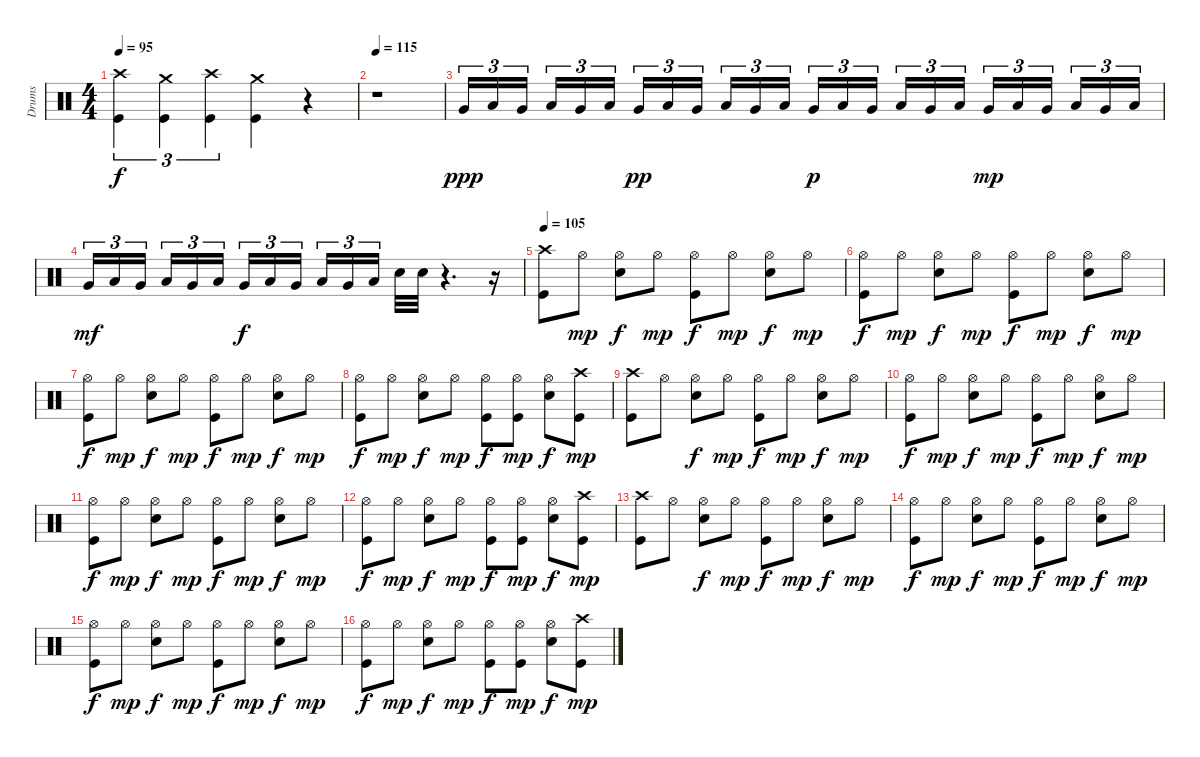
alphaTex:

\track ("Drums" "Drums") {instrument percussion}
\staff {score}
\articulation defaults
\ts (4 4)
\tempo 95
\clef neutral
\ks c
("Crash high (hit)" "Kick (hit)").4{tu (3 2) dy f} ("Crash medium (hit)" "Kick (hit)").4{tu (3 2)} ("Crash high (hit)" "Kick (hit)").4{tu (3 2)} ("Crash medium (hit)" "Kick (hit)").4 r.4 |
\tempo 115
r.1 |
"Very Low Tom (hit)".16{tu (3 2) dy ppp} "Low Floor Tom (hit)".16{tu (3 2)} "Very Low Tom (hit)".16{tu (3 2)} "Low Floor Tom (hit)".16{tu (3 2)} "Very Low Tom (hit)".16{tu (3 2)} "Low Floor Tom (hit)".16{tu (3 2)} "Very Low Tom (hit)".16{tu (3 2) dy pp} "Low Floor Tom (hit)".16{tu (3 2)} "Very Low Tom (hit)".16{tu (3 2)} "Low Floor Tom (hit)".16{tu (3 2)} "Very Low Tom (hit)".16{tu (3 2)} "Low Floor Tom (hit)".16{tu (3 2)} "Very Low Tom (hit)".16{tu (3 2) dy p} "Low Floor Tom (hit)".16{tu (3 2)} "Very Low Tom (hit)".16{tu (3 2)} "Low Floor Tom (hit)".16{tu (3 2)} "Very Low Tom (hit)".16{tu (3 2)} "Low Floor Tom (hit)".16{tu (3 2)} "Very Low Tom (hit)".16{tu (3 2) dy mp} "Low Floor Tom (hit)".16{tu (3 2)} "Very Low Tom (hit)".16{tu (3 2)} "Low Floor Tom (hit)".16{tu (3 2)} "Very Low Tom (hit)".16{tu (3 2)} "Low Floor Tom (hit)".16{tu (3 2)} |
"Very Low Tom (hit)".16{tu (3 2) dy mf} "Low Floor Tom (hit)".16{tu (3 2)} "Very Low Tom (hit)".16{tu (3 2)} "Low Floor Tom (hit)".16{tu (3 2)} "Very Low Tom (hit)".16{tu (3 2)} "Low Floor Tom (hit)".16{tu (3 2)} "Very Low Tom (hit)".16{tu (3 2) dy f} "Low Floor Tom (hit)".16{tu (3 2)} "Very Low Tom (hit)".16{tu (3 2)} "Low Floor Tom (hit)".16{tu (3 2)} "Very Low Tom (hit)".16{tu (3 2)} "Low Floor Tom (hit)".16{tu (3 2)} "Snare (hit) 2".32 "Snare (hit) 2".32 r.4{d} r.16 |
\tempo 105
("Crash high (hit)" "Kick (hit)").8 "Hi-Hat (open)".8{dy mp} ("Hi-Hat (open)" "Snare (hit) 2").8{dy f} "Hi-Hat (open)".8{dy mp} ("Hi-Hat (open)" "Kick (hit)").8{dy f} "Hi-Hat (open)".8{dy mp} ("Hi-Hat (open)" "Snare (hit) 2").8{dy f} "Hi-Hat (open)".8{dy mp} |
("Hi-Hat (open)" "Kick (hit)").8{dy f} "Hi-Hat (open)".8{dy mp} ("Hi-Hat (open)" "Snare (hit) 2").8{dy f} "Hi-Hat (open)".8{dy mp} ("Hi-Hat (open)" "Kick (hit)").8{dy f} "Hi-Hat (open)".8{dy mp} ("Hi-Hat (open)" "Snare (hit) 2").8{dy f} "Hi-Hat (open)".8{dy mp} |
("Hi-Hat (open)" "Kick (hit)").8{dy f} "Hi-Hat (open)".8{dy mp} ("Hi-Hat (open)" "Snare (hit) 2").8{dy f} "Hi-Hat (open)".8{dy mp} ("Hi-Hat (open)" "Kick (hit)").8{dy f} "Hi-Hat (open)".8{dy mp} ("Hi-Hat (open)" "Snare (hit) 2").8{dy f} "Hi-Hat (open)".8{dy mp} |
("Hi-Hat (open)" "Kick (hit)").8{dy f} "Hi-Hat (open)".8{dy mp} ("Hi-Hat (open)" "Snare (hit) 2").8{dy f} "Hi-Hat (open)".8{dy mp} ("Hi-Hat (open)" "Kick (hit)").8{dy f} ("Hi-Hat (open)" "Kick (hit)").8{dy mp} ("Hi-Hat (open)" "Snare (hit) 2").8{dy f} ("Crash high (hit)" "Kick (hit)").8{dy mp} |
("Crash high (hit)" "Kick (hit)").8 "Hi-Hat (open)".8 ("Hi-Hat (open)" "Snare (hit) 2").8{dy f} "Hi-Hat (open)".8{dy mp} ("Hi-Hat (open)" "Kick (hit)").8{dy f} "Hi-Hat (open)".8{dy mp} ("Hi-Hat (open)" "Snare (hit) 2").8{dy f} "Hi-Hat (open)".8{dy mp} |
("Hi-Hat (open)" "Kick (hit)").8{dy f} "Hi-Hat (open)".8{dy mp} ("Hi-Hat (open)" "Snare (hit) 2").8{dy f} "Hi-Hat (open)".8{dy mp} ("Hi-Hat (open)" "Kick (hit)").8{dy f} "Hi-Hat (open)".8{dy mp} ("Hi-Hat (open)" "Snare (hit) 2").8{dy f} "Hi-Hat (open)".8{dy mp} |
("Hi-Hat (open)" "Kick (hit)").8{dy f} "Hi-Hat (open)".8{dy mp} ("Hi-Hat (open)" "Snare (hit) 2").8{dy f} "Hi-Hat (open)".8{dy mp} ("Hi-Hat (open)" "Kick (hit)").8{dy f} "Hi-Hat (open)".8{dy mp} ("Hi-Hat (open)" "Snare (hit) 2").8{dy f} "Hi-Hat (open)".8{dy mp} |
("Hi-Hat (open)" "Kick (hit)").8{dy f} "Hi-Hat (open)".8{dy mp} ("Hi-Hat (open)" "Snare (hit) 2").8{dy f} "Hi-Hat (open)".8{dy mp} ("Hi-Hat (open)" "Kick (hit)").8{dy f} ("Hi-Hat (open)" "Kick (hit)").8{dy mp} ("Hi-Hat (open)" "Snare (hit) 2").8{dy f} ("Crash high (hit)" "Kick (hit)").8{dy mp} |
("Crash high (hit)" "Kick (hit)").8 "Hi-Hat (open)".8 ("Hi-Hat (open)" "Snare (hit) 2").8{dy f} "Hi-Hat (open)".8{dy mp} ("Hi-Hat (open)" "Kick (hit)").8{dy f} "Hi-Hat (open)".8{dy mp} ("Hi-Hat (open)" "Snare (hit) 2").8{dy f} "Hi-Hat (open)".8{dy mp} |
("Hi-Hat (open)" "Kick (hit)").8{dy f} "Hi-Hat (open)".8{dy mp} ("Hi-Hat (open)" "Snare (hit) 2").8{dy f} "Hi-Hat (open)".8{dy mp} ("Hi-Hat (open)" "Kick (hit)").8{dy f} "Hi-Hat (open)".8{dy mp} ("Hi-Hat (open)" "Snare (hit) 2").8{dy f} "Hi-Hat (open)".8{dy mp} |
("Hi-Hat (open)" "Kick (hit)").8{dy f} "Hi-Hat (open)".8{dy mp} ("Hi-Hat (open)" "Snare (hit) 2").8{dy f} "Hi-Hat (open)".8{dy mp} ("Hi-Hat (open)" "Kick (hit)").8{dy f} "Hi-Hat (open)".8{dy mp} ("Hi-Hat (open)" "Snare (hit) 2").8{dy f} "Hi-Hat (open)".8{dy mp} |
("Hi-Hat (open)" "Kick (hit)").8{dy f} "Hi-Hat (open)".8{dy mp} ("Hi-Hat (open)" "Snare (hit) 2").8{dy f} "Hi-Hat (open)".8{dy mp} ("Hi-Hat (open)" "Kick (hit)").8{dy f} ("Hi-Hat (open)" "Kick (hit)").8{dy mp} ("Hi-Hat (open)" "Snare (hit) 2").8{dy f} ("Crash high (hit)" "Kick (hit)").8{dy mp}
